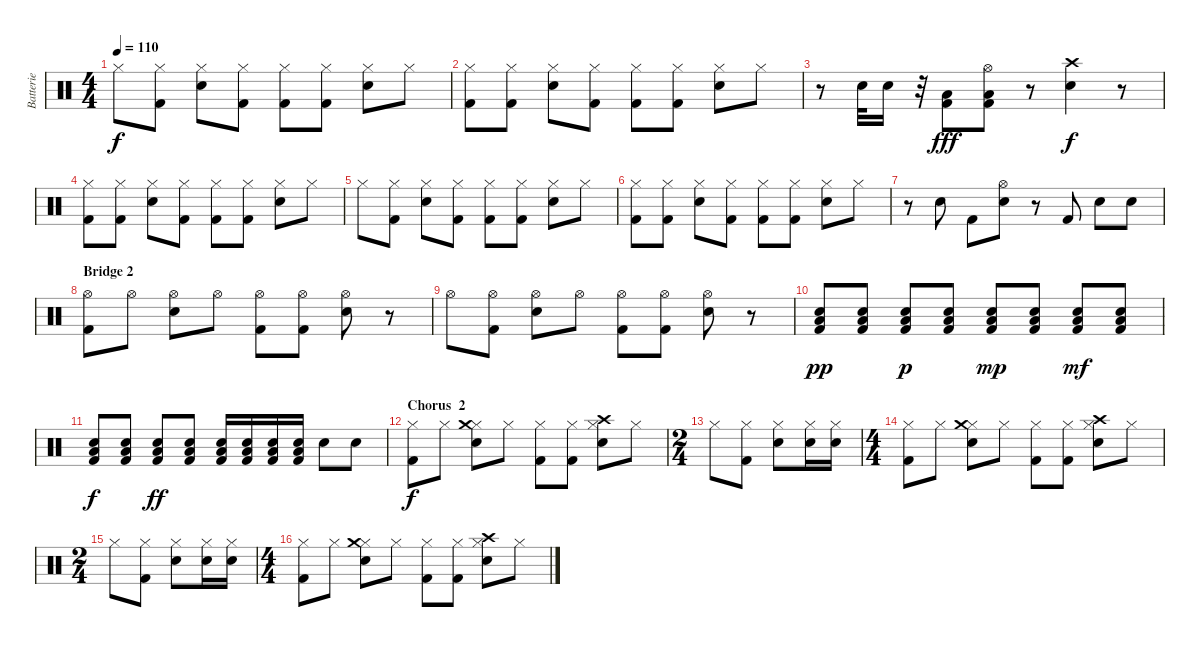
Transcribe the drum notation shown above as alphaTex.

\track ("Batterie" "Batterie") {instrument percussion}
\staff {score}
\articulation defaults
\ts (4 4)
\tempo 110
\clef neutral
\ks c "Hi-Hat (closed)".8{dy f}
("Hi-Hat (closed)" "Kick (hit) 2").8 ("Hi-Hat (closed)" "Electric Snare (hit)").8 ("Hi-Hat (closed)" "Kick (hit) 2").8 ("Hi-Hat (closed)" "Kick (hit) 2").8 ("Hi-Hat (closed)" "Kick (hit) 2").8 ("Hi-Hat (closed)" "Electric Snare (hit)").8 "Hi-Hat (closed)".8 |
("Hi-Hat (closed)" "Kick (hit) 2").8 ("Hi-Hat (closed)" "Kick (hit) 2").8 ("Hi-Hat (closed)" "Electric Snare (hit)").8 ("Hi-Hat (closed)" "Kick (hit) 2").8 ("Hi-Hat (closed)" "Kick (hit) 2").8 ("Hi-Hat (closed)" "Kick (hit) 2").8 ("Hi-Hat (closed)" "Electric Snare (hit)").8 "Hi-Hat (closed)".8 |
r.8 "Electric Snare (hit)".32 "Electric Snare (hit)".16 r.32 ("Low Floor Tom (hit)" "Kick (hit) 2").8{dy fff} ("Hi-Hat (open)" "Low Floor Tom (hit)" "Kick (hit) 2").8 r.8 ("Crash high (hit)" "Electric Snare (hit)").4{dy f} r.8 |
("Hi-Hat (closed)" "Kick (hit) 2").8 ("Hi-Hat (closed)" "Kick (hit) 2").8 ("Hi-Hat (closed)" "Electric Snare (hit)").8 ("Hi-Hat (closed)" "Kick (hit) 2").8 ("Hi-Hat (closed)" "Kick (hit) 2").8 ("Hi-Hat (closed)" "Kick (hit) 2").8 ("Hi-Hat (closed)" "Electric Snare (hit)").8 "Hi-Hat (closed)".8 |
"Hi-Hat (closed)".8 ("Hi-Hat (closed)" "Kick (hit) 2").8 ("Hi-Hat (closed)" "Electric Snare (hit)").8 ("Hi-Hat (closed)" "Kick (hit) 2").8 ("Hi-Hat (closed)" "Kick (hit) 2").8 ("Hi-Hat (closed)" "Kick (hit) 2").8 ("Hi-Hat (closed)" "Electric Snare (hit)").8 "Hi-Hat (closed)".8 |
("Hi-Hat (closed)" "Kick (hit) 2").8 ("Hi-Hat (closed)" "Kick (hit) 2").8 ("Hi-Hat (closed)" "Electric Snare (hit)").8 ("Hi-Hat (closed)" "Kick (hit) 2").8 ("Hi-Hat (closed)" "Kick (hit) 2").8 ("Hi-Hat (closed)" "Kick (hit) 2").8 ("Hi-Hat (closed)" "Electric Snare (hit)").8 "Hi-Hat (closed)".8 |
r.8 "Electric Snare (hit)".8 "Kick (hit) 2".8 ("Hi-Hat (open)" "Electric Snare (hit)").8 r.8 "Kick (hit) 2".8 "Electric Snare (hit)".8 "Electric Snare (hit)".8 |
\section ("" "Bridge 2")
("Hi-Hat (open)" "Kick (hit) 2").8 "Hi-Hat (open)".8 ("Hi-Hat (open)" "Electric Snare (hit)").8 "Hi-Hat (open)".8 ("Hi-Hat (open)" "Kick (hit) 2").8 ("Hi-Hat (open)" "Kick (hit) 2").8 ("Hi-Hat (open)" "Electric Snare (hit)").8 r.8 |
"Hi-Hat (open)".8 ("Hi-Hat (open)" "Kick (hit) 2").8 ("Hi-Hat (open)" "Electric Snare (hit)").8 "Hi-Hat (open)".8 ("Hi-Hat (open)" "Kick (hit) 2").8 ("Hi-Hat (open)" "Kick (hit) 2").8 ("Hi-Hat (open)" "Electric Snare (hit)").8 r.8 |
("Electric Snare (hit)" "Kick (hit) 2" "Low Floor Tom (hit)").8{dy pp} ("Electric Snare (hit)" "Kick (hit) 2" "Low Floor Tom (hit)").8 ("Electric Snare (hit)" "Kick (hit) 2" "Low Floor Tom (hit)").8{dy p} ("Electric Snare (hit)" "Kick (hit) 2" "Low Floor Tom (hit)").8 ("Electric Snare (hit)" "Kick (hit) 2" "Low Floor Tom (hit)").8{dy mp} ("Electric Snare (hit)" "Kick (hit) 2" "Low Floor Tom (hit)").8 ("Electric Snare (hit)" "Kick (hit) 2" "Low Floor Tom (hit)").8{dy mf} ("Electric Snare (hit)" "Kick (hit) 2" "Low Floor Tom (hit)").8 |
("Electric Snare (hit)" "Kick (hit) 2" "Low Floor Tom (hit)").8{dy f} ("Electric Snare (hit)" "Kick (hit) 2" "Low Floor Tom (hit)").8 ("Electric Snare (hit)" "Kick (hit) 2" "Low Floor Tom (hit)").8{dy ff} ("Electric Snare (hit)" "Kick (hit) 2" "Low Floor Tom (hit)").8 ("Electric Snare (hit)" "Kick (hit) 2" "Low Floor Tom (hit)").16 ("Electric Snare (hit)" "Kick (hit) 2" "Low Floor Tom (hit)").16 ("Electric Snare (hit)" "Kick (hit) 2" "Low Floor Tom (hit)").16 ("Electric Snare (hit)" "Kick (hit) 2" "Low Floor Tom (hit)").16 "Electric Snare (hit)".8 "Electric Snare (hit)".8 |
\section ("" "Chorus  2")
("Hi-Hat (closed)" "Kick (hit) 2").8{dy f} "Hi-Hat (closed)".8 ("Hi-Hat (closed)" "Crash medium (hit)" "Electric Snare (hit)").8 "Hi-Hat (closed)".8 ("Hi-Hat (closed)" "Kick (hit) 2").8 ("Hi-Hat (closed)" "Kick (hit) 2").8 ("Hi-Hat (closed)" "Crash high (hit)" "Electric Snare (hit)").8 "Hi-Hat (closed)".8 |
\ts (2 4)
"Hi-Hat (closed)".8 ("Hi-Hat (closed)" "Kick (hit) 2").8 ("Hi-Hat (closed)" "Electric Snare (hit)").8 ("Hi-Hat (closed)" "Electric Snare (hit)").16 ("Hi-Hat (closed)" "Electric Snare (hit)").16 |
\ts (4 4)
("Hi-Hat (closed)" "Kick (hit) 2").8 "Hi-Hat (closed)".8 ("Hi-Hat (closed)" "Crash medium (hit)" "Electric Snare (hit)").8 "Hi-Hat (closed)".8 ("Hi-Hat (closed)" "Kick (hit) 2").8 ("Hi-Hat (closed)" "Kick (hit) 2").8 ("Hi-Hat (closed)" "Crash high (hit)" "Electric Snare (hit)").8 "Hi-Hat (closed)".8 |
\ts (2 4)
"Hi-Hat (closed)".8 ("Hi-Hat (closed)" "Kick (hit) 2").8 ("Hi-Hat (closed)" "Electric Snare (hit)").8 ("Hi-Hat (closed)" "Electric Snare (hit)").16 ("Hi-Hat (closed)" "Electric Snare (hit)").16 |
\ts (4 4)
("Hi-Hat (closed)" "Kick (hit) 2").8 "Hi-Hat (closed)".8 ("Hi-Hat (closed)" "Crash medium (hit)" "Electric Snare (hit)").8 "Hi-Hat (closed)".8 ("Hi-Hat (closed)" "Kick (hit) 2").8 ("Hi-Hat (closed)" "Kick (hit) 2").8 ("Hi-Hat (closed)" "Crash high (hit)" "Electric Snare (hit)").8 "Hi-Hat (closed)".8
